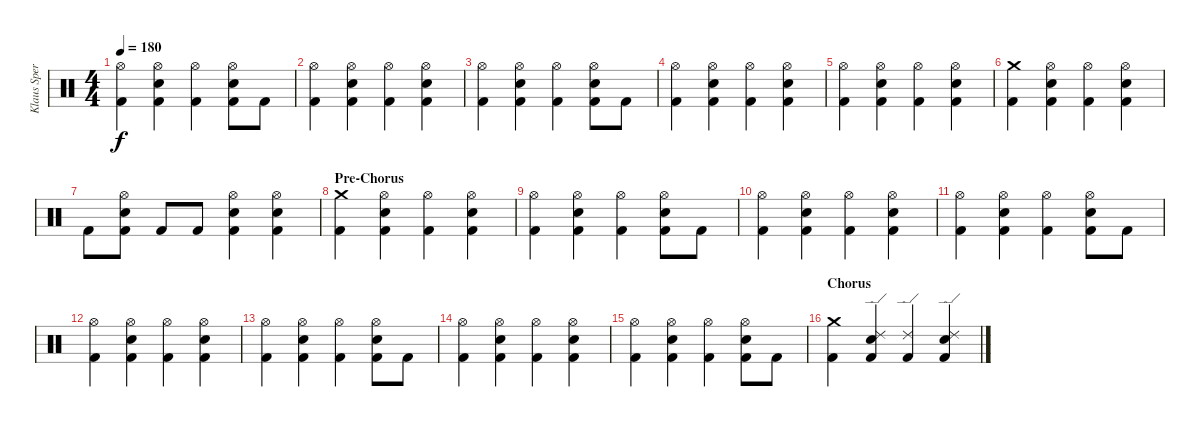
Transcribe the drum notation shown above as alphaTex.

\track ("Klaus Sperling Drums" "Klaus Sper") {instrument percussion}
\staff {score}
\articulation defaults
\ts (4 4)
\tempo 180
\clef neutral
\ks c
("Hi-Hat (open)" "Kick (hit) 2").4{dy f} ("Hi-Hat (open)" "Electric Snare (hit)" "Kick (hit) 2").4 ("Hi-Hat (open)" "Kick (hit) 2").4 ("Hi-Hat (open)" "Electric Snare (hit)" "Kick (hit) 2").8 "Kick (hit) 2".8 |
("Hi-Hat (open)" "Kick (hit) 2").4 ("Hi-Hat (open)" "Electric Snare (hit)" "Kick (hit) 2").4 ("Hi-Hat (open)" "Kick (hit) 2").4 ("Hi-Hat (open)" "Electric Snare (hit)" "Kick (hit) 2").4 |
("Hi-Hat (open)" "Kick (hit) 2").4 ("Hi-Hat (open)" "Electric Snare (hit)" "Kick (hit) 2").4 ("Hi-Hat (open)" "Kick (hit) 2").4 ("Hi-Hat (open)" "Electric Snare (hit)" "Kick (hit) 2").8 "Kick (hit) 2".8 |
("Hi-Hat (open)" "Kick (hit) 2").4 ("Hi-Hat (open)" "Electric Snare (hit)" "Kick (hit) 2").4 ("Hi-Hat (open)" "Kick (hit) 2").4 ("Hi-Hat (open)" "Electric Snare (hit)" "Kick (hit) 2").4 |
("Hi-Hat (open)" "Kick (hit) 2").4 ("Hi-Hat (open)" "Electric Snare (hit)" "Kick (hit) 2").4 ("Hi-Hat (open)" "Kick (hit) 2").4 ("Hi-Hat (open)" "Electric Snare (hit)" "Kick (hit) 2").4 |
("Crash medium (hit)" "Kick (hit) 2").4 ("Hi-Hat (open)" "Electric Snare (hit)" "Kick (hit) 2").4 ("Hi-Hat (open)" "Kick (hit) 2").4 ("Hi-Hat (open)" "Electric Snare (hit)" "Kick (hit) 2").4 |
"Kick (hit) 2".8 ("Hi-Hat (open)" "Electric Snare (hit)" "Kick (hit) 2").8 "Kick (hit) 2".8 "Kick (hit) 2".8 ("Hi-Hat (open)" "Electric Snare (hit)" "Kick (hit) 2").4 ("Hi-Hat (open)" "Electric Snare (hit)" "Kick (hit) 2").4 |
\section ("" "Pre-Chorus")
("Crash medium (hit)" "Kick (hit) 2").4 ("Hi-Hat (open)" "Electric Snare (hit)" "Kick (hit) 2").4 ("Hi-Hat (open)" "Kick (hit) 2").4 ("Hi-Hat (open)" "Electric Snare (hit)" "Kick (hit) 2").4 |
("Hi-Hat (open)" "Kick (hit) 2").4 ("Hi-Hat (open)" "Electric Snare (hit)" "Kick (hit) 2").4 ("Hi-Hat (open)" "Kick (hit) 2").4 ("Hi-Hat (open)" "Electric Snare (hit)" "Kick (hit) 2").8 "Kick (hit) 2".8 |
("Hi-Hat (open)" "Kick (hit) 2").4 ("Hi-Hat (open)" "Electric Snare (hit)" "Kick (hit) 2").4 ("Hi-Hat (open)" "Kick (hit) 2").4 ("Hi-Hat (open)" "Electric Snare (hit)" "Kick (hit) 2").4 |
("Hi-Hat (open)" "Kick (hit) 2").4 ("Hi-Hat (open)" "Electric Snare (hit)" "Kick (hit) 2").4 ("Hi-Hat (open)" "Kick (hit) 2").4 ("Hi-Hat (open)" "Electric Snare (hit)" "Kick (hit) 2").8 "Kick (hit) 2".8 |
("Hi-Hat (open)" "Kick (hit) 2").4 ("Hi-Hat (open)" "Electric Snare (hit)" "Kick (hit) 2").4 ("Hi-Hat (open)" "Kick (hit) 2").4 ("Hi-Hat (open)" "Electric Snare (hit)" "Kick (hit) 2").4 |
("Hi-Hat (open)" "Kick (hit) 2").4 ("Hi-Hat (open)" "Electric Snare (hit)" "Kick (hit) 2").4 ("Hi-Hat (open)" "Kick (hit) 2").4 ("Hi-Hat (open)" "Electric Snare (hit)" "Kick (hit) 2").8 "Kick (hit) 2".8 |
("Hi-Hat (open)" "Kick (hit) 2").4 ("Hi-Hat (open)" "Electric Snare (hit)" "Kick (hit) 2").4 ("Hi-Hat (open)" "Kick (hit) 2").4 ("Hi-Hat (open)" "Electric Snare (hit)" "Kick (hit) 2").4 |
("Hi-Hat (open)" "Kick (hit) 2").4 ("Hi-Hat (open)" "Electric Snare (hit)" "Kick (hit) 2").4 ("Hi-Hat (open)" "Kick (hit) 2").4 ("Hi-Hat (open)" "Electric Snare (hit)" "Kick (hit) 2").8 "Kick (hit) 2".8 |
\section ("" "Chorus")
("Crash medium (hit)" "Kick (hit) 2").4 ("Ride (edge) 2" "Electric Snare (hit)" "Kick (hit) 2").4 ("Ride (edge) 2" "Kick (hit) 2").4 ("Ride (edge) 2" "Electric Snare (hit)" "Kick (hit) 2").4
